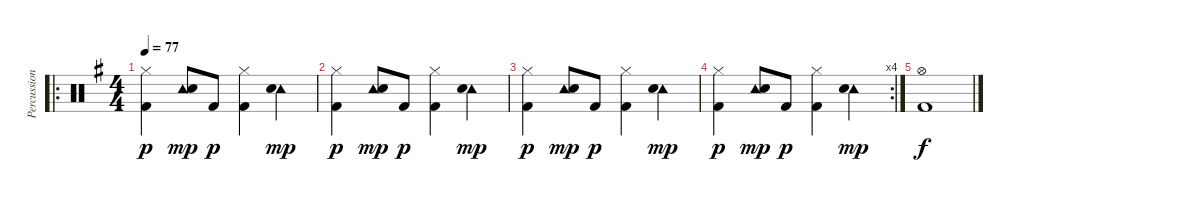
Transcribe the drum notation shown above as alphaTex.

\track ("Percussion" "Percussion") {instrument percussion}
\staff {score}
\articulation defaults
\ro
\ts (4 4)
\tempo 77
\clef neutral
\ks g
("Hi-Hat (closed)" "Kick (hit) 2").4{dy p} ("Tambourine (hit)" "Snare (hit) 2").8{dy mp} "Kick (hit) 2".8{dy p} ("Hi-Hat (closed)" "Kick (hit) 2").4 ("Tambourine (hit)" "Snare (hit) 2").4{dy mp} |
("Hi-Hat (closed)" "Kick (hit) 2").4{dy p} ("Tambourine (hit)" "Snare (hit) 2").8{dy mp} "Kick (hit) 2".8{dy p} ("Hi-Hat (closed)" "Kick (hit) 2").4 ("Tambourine (hit)" "Snare (hit) 2").4{dy mp} |
("Hi-Hat (closed)" "Kick (hit) 2").4{dy p} ("Tambourine (hit)" "Snare (hit) 2").8{dy mp} "Kick (hit) 2".8{dy p} ("Hi-Hat (closed)" "Kick (hit) 2").4 ("Tambourine (hit)" "Snare (hit) 2").4{dy mp} |
\rc 4
("Hi-Hat (closed)" "Kick (hit) 2").4{dy p} ("Tambourine (hit)" "Snare (hit) 2").8{dy mp} "Kick (hit) 2".8{dy p} ("Hi-Hat (closed)" "Kick (hit) 2").4 ("Tambourine (hit)" "Snare (hit) 2").4{dy mp} |
("Hi-Hat (open)" "Kick (hit) 2").1{dy f}
